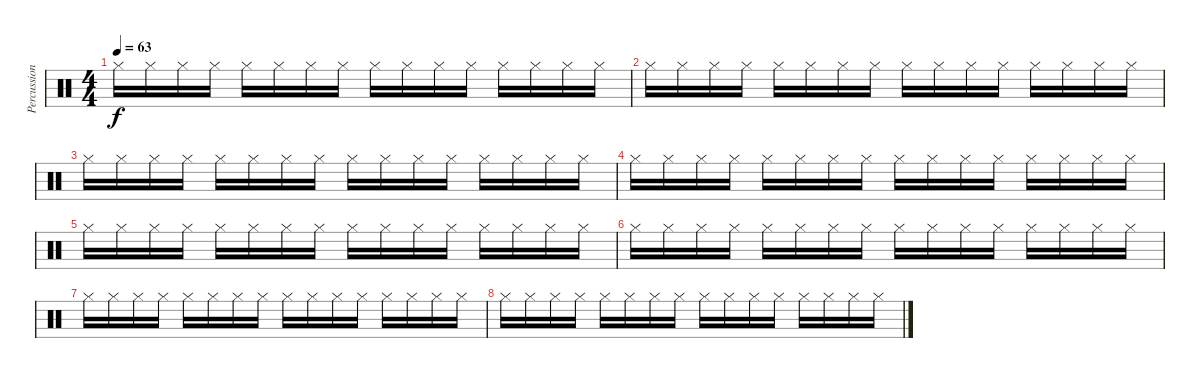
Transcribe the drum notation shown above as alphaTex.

\track ("Percussion" "Percussion") {instrument percussion}
\staff {score}
\articulation defaults
\ts (4 4)
\tempo 63
\clef neutral
\ks c "Hi-Hat (closed)".16{dy f} "Hi-Hat (closed)".16 "Hi-Hat (closed)".16 "Hi-Hat (closed)".16 "Hi-Hat (closed)".16 "Hi-Hat (closed)".16 "Hi-Hat (closed)".16 "Hi-Hat (closed)".16 "Hi-Hat (closed)".16 "Hi-Hat (closed)".16 "Hi-Hat (closed)".16 "Hi-Hat (closed)".16 "Hi-Hat (closed)".16 "Hi-Hat (closed)".16 "Hi-Hat (closed)".16 "Hi-Hat (closed)".16
|
"Hi-Hat (closed)".16 "Hi-Hat (closed)".16 "Hi-Hat (closed)".16 "Hi-Hat (closed)".16 "Hi-Hat (closed)".16 "Hi-Hat (closed)".16 "Hi-Hat (closed)".16 "Hi-Hat (closed)".16 "Hi-Hat (closed)".16 "Hi-Hat (closed)".16 "Hi-Hat (closed)".16 "Hi-Hat (closed)".16 "Hi-Hat (closed)".16 "Hi-Hat (closed)".16 "Hi-Hat (closed)".16 "Hi-Hat (closed)".16 |
"Hi-Hat (closed)".16 "Hi-Hat (closed)".16 "Hi-Hat (closed)".16 "Hi-Hat (closed)".16 "Hi-Hat (closed)".16 "Hi-Hat (closed)".16 "Hi-Hat (closed)".16 "Hi-Hat (closed)".16 "Hi-Hat (closed)".16 "Hi-Hat (closed)".16 "Hi-Hat (closed)".16 "Hi-Hat (closed)".16 "Hi-Hat (closed)".16 "Hi-Hat (closed)".16 "Hi-Hat (closed)".16 "Hi-Hat (closed)".16 |
"Hi-Hat (closed)".16 "Hi-Hat (closed)".16 "Hi-Hat (closed)".16 "Hi-Hat (closed)".16 "Hi-Hat (closed)".16 "Hi-Hat (closed)".16 "Hi-Hat (closed)".16 "Hi-Hat (closed)".16 "Hi-Hat (closed)".16 "Hi-Hat (closed)".16 "Hi-Hat (closed)".16 "Hi-Hat (closed)".16 "Hi-Hat (closed)".16 "Hi-Hat (closed)".16 "Hi-Hat (closed)".16 "Hi-Hat (closed)".16 |
"Hi-Hat (closed)".16 "Hi-Hat (closed)".16 "Hi-Hat (closed)".16 "Hi-Hat (closed)".16 "Hi-Hat (closed)".16 "Hi-Hat (closed)".16 "Hi-Hat (closed)".16 "Hi-Hat (closed)".16 "Hi-Hat (closed)".16 "Hi-Hat (closed)".16 "Hi-Hat (closed)".16 "Hi-Hat (closed)".16 "Hi-Hat (closed)".16 "Hi-Hat (closed)".16 "Hi-Hat (closed)".16 "Hi-Hat (closed)".16 |
"Hi-Hat (closed)".16 "Hi-Hat (closed)".16 "Hi-Hat (closed)".16 "Hi-Hat (closed)".16 "Hi-Hat (closed)".16 "Hi-Hat (closed)".16 "Hi-Hat (closed)".16 "Hi-Hat (closed)".16 "Hi-Hat (closed)".16 "Hi-Hat (closed)".16 "Hi-Hat (closed)".16 "Hi-Hat (closed)".16 "Hi-Hat (closed)".16 "Hi-Hat (closed)".16 "Hi-Hat (closed)".16 "Hi-Hat (closed)".16 |
"Hi-Hat (closed)".16 "Hi-Hat (closed)".16 "Hi-Hat (closed)".16 "Hi-Hat (closed)".16 "Hi-Hat (closed)".16 "Hi-Hat (closed)".16 "Hi-Hat (closed)".16 "Hi-Hat (closed)".16 "Hi-Hat (closed)".16 "Hi-Hat (closed)".16 "Hi-Hat (closed)".16 "Hi-Hat (closed)".16 "Hi-Hat (closed)".16 "Hi-Hat (closed)".16 "Hi-Hat (closed)".16 "Hi-Hat (closed)".16 |
"Hi-Hat (closed)".16 "Hi-Hat (closed)".16 "Hi-Hat (closed)".16 "Hi-Hat (closed)".16 "Hi-Hat (closed)".16 "Hi-Hat (closed)".16 "Hi-Hat (closed)".16 "Hi-Hat (closed)".16 "Hi-Hat (closed)".16 "Hi-Hat (closed)".16 "Hi-Hat (closed)".16 "Hi-Hat (closed)".16 "Hi-Hat (closed)".16 "Hi-Hat (closed)".16 "Hi-Hat (closed)".16 "Hi-Hat (closed)".16
